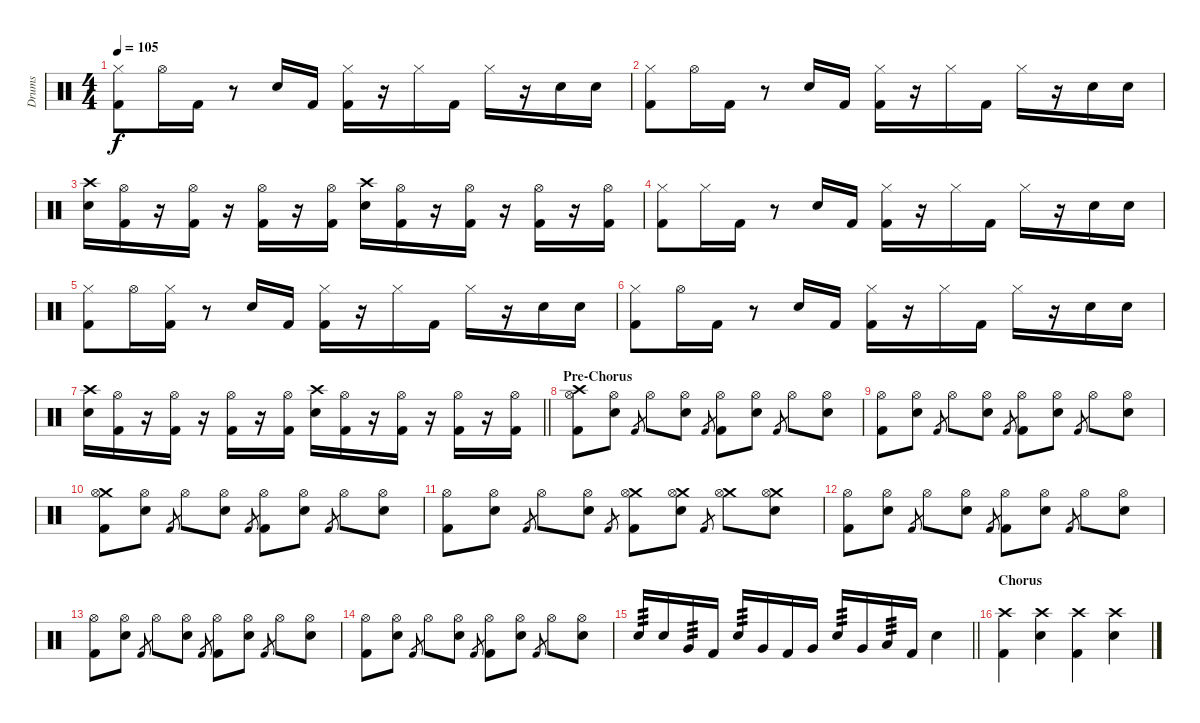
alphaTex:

\track ("Drums" "Drums") {instrument percussion}
\staff {score}
\articulation defaults
\ts (4 4)
\tempo 105
\clef neutral
\ks c
("Hi-Hat (closed)" "Kick (hit) 2").8{dy f} "Hi-Hat (open)".16 "Kick (hit) 2".16 r.8 "Electric Snare (hit)".16 "Kick (hit) 2".16 ("Hi-Hat (closed)" "Kick (hit) 2").16 r.16 "Hi-Hat (closed)".16 "Kick (hit) 2".16 "Hi-Hat (closed)".16 r.16 "Electric Snare (hit)".16 "Electric Snare (hit)".16 |
("Hi-Hat (closed)" "Kick (hit) 2").8 "Hi-Hat (open)".16 "Kick (hit) 2".16 r.8 "Electric Snare (hit)".16 "Kick (hit) 2".16 ("Hi-Hat (closed)" "Kick (hit) 2").16 r.16 "Hi-Hat (closed)".16 "Kick (hit) 2".16 "Hi-Hat (closed)".16 r.16 "Electric Snare (hit)".16 "Electric Snare (hit)".16 |
("Crash high (hit)" "Electric Snare (hit)").16 ("Hi-Hat (open)" "Kick (hit) 2").16 r.16 ("Kick (hit) 2" "Hi-Hat (open)").16 r.16 ("Kick (hit) 2" "Hi-Hat (open)").16 r.16 ("Hi-Hat (open)" "Kick (hit) 2").16 ("Crash high (hit)" "Electric Snare (hit)").16 ("Hi-Hat (open)" "Kick (hit) 2").16 r.16 ("Kick (hit) 2" "Hi-Hat (open)").16 r.16 ("Kick (hit) 2" "Hi-Hat (open)").16 r.16 ("Hi-Hat (open)" "Kick (hit) 2").16 |
("Hi-Hat (closed)" "Kick (hit) 2").8 "Hi-Hat (closed)".16 "Kick (hit) 2".16 r.8 "Electric Snare (hit)".16 "Kick (hit) 2".16 ("Hi-Hat (closed)" "Kick (hit) 2").16 r.16 "Hi-Hat (closed)".16 "Kick (hit) 2".16 "Hi-Hat (closed)".16 r.16 "Electric Snare (hit)".16 "Electric Snare (hit)".16 |
("Hi-Hat (closed)" "Kick (hit) 2").8 "Hi-Hat (open)".16 ("Hi-Hat (closed)" "Kick (hit) 2").16 r.8 "Electric Snare (hit)".16 "Kick (hit) 2".16 ("Hi-Hat (closed)" "Kick (hit) 2").16 r.16 "Hi-Hat (closed)".16 "Kick (hit) 2".16 "Hi-Hat (closed)".16 r.16 "Electric Snare (hit)".16 "Electric Snare (hit)".16 |
("Hi-Hat (closed)" "Kick (hit) 2").8 "Hi-Hat (open)".16 "Kick (hit) 2".16 r.8 "Electric Snare (hit)".16 "Kick (hit) 2".16 ("Hi-Hat (closed)" "Kick (hit) 2").16 r.16 "Hi-Hat (closed)".16 "Kick (hit) 2".16 "Hi-Hat (closed)".16 r.16 "Electric Snare (hit)".16 "Electric Snare (hit)".16 |
\barLineRight lightlight
("Crash high (hit)" "Electric Snare (hit)").16 ("Hi-Hat (open)" "Kick (hit) 2").16 r.16 ("Kick (hit) 2" "Hi-Hat (open)").16 r.16 ("Kick (hit) 2" "Hi-Hat (open)").16 r.16 ("Hi-Hat (open)" "Kick (hit) 2").16 ("Crash high (hit)" "Electric Snare (hit)").16 ("Hi-Hat (open)" "Kick (hit) 2").16 r.16 ("Kick (hit) 2" "Hi-Hat (open)").16 r.16 ("Kick (hit) 2" "Hi-Hat (open)").16 r.16 ("Hi-Hat (open)" "Kick (hit) 2").16 |
\section ("" "Pre-Chorus")
("Crash high (hit)" "Kick (hit) 2" "Hi-Hat (open)").8 ("Electric Snare (hit)" "Hi-Hat (open)").8 "Kick (hit) 2".8{gr} "Hi-Hat (open)".8 ("Electric Snare (hit)" "Hi-Hat (open)").8 "Kick (hit) 2".8{gr} ("Kick (hit) 2" "Hi-Hat (open)").8 ("Electric Snare (hit)" "Hi-Hat (open)").8 "Kick (hit) 2".8{gr} "Hi-Hat (open)".8 ("Electric Snare (hit)" "Hi-Hat (open)").8 |
("Kick (hit) 2" "Hi-Hat (open)").8 ("Electric Snare (hit)" "Hi-Hat (open)").8 "Kick (hit) 2".8{gr} "Hi-Hat (open)".8 ("Electric Snare (hit)" "Hi-Hat (open)").8 "Kick (hit) 2".8{gr} ("Kick (hit) 2" "Hi-Hat (open)").8 ("Electric Snare (hit)" "Hi-Hat (open)").8 "Kick (hit) 2".8{gr} "Hi-Hat (open)".8 ("Electric Snare (hit)" "Hi-Hat (open)").8 |
("Crash medium (hit)" "Kick (hit) 2" "Hi-Hat (open)").8 ("Electric Snare (hit)" "Hi-Hat (open)").8 "Kick (hit) 2".8{gr} "Hi-Hat (open)".8 ("Electric Snare (hit)" "Hi-Hat (open)").8 "Kick (hit) 2".8{gr} ("Kick (hit) 2" "Hi-Hat (open)").8 ("Electric Snare (hit)" "Hi-Hat (open)").8 "Kick (hit) 2".8{gr} "Hi-Hat (open)".8 ("Electric Snare (hit)" "Hi-Hat (open)").8 |
("Kick (hit) 2" "Hi-Hat (open)").8 ("Electric Snare (hit)" "Hi-Hat (open)").8 "Kick (hit) 2".8{gr} "Hi-Hat (open)".8 ("Electric Snare (hit)" "Hi-Hat (open)").8 "Kick (hit) 2".8{gr} ("Crash medium (hit)" "Kick (hit) 2" "Hi-Hat (open)").8 ("Crash medium (hit)" "Electric Snare (hit)" "Hi-Hat (open)").8 "Kick (hit) 2".8{gr} ("Crash medium (hit)" "Hi-Hat (open)").8 ("Crash medium (hit)" "Electric Snare (hit)" "Hi-Hat (open)").8 |
("Kick (hit) 2" "Hi-Hat (open)").8 ("Electric Snare (hit)" "Hi-Hat (open)").8 "Kick (hit) 2".8{gr} "Hi-Hat (open)".8 ("Electric Snare (hit)" "Hi-Hat (open)").8 "Kick (hit) 2".8{gr} ("Kick (hit) 2" "Hi-Hat (open)").8 ("Electric Snare (hit)" "Hi-Hat (open)").8 "Kick (hit) 2".8{gr} "Hi-Hat (open)".8 ("Electric Snare (hit)" "Hi-Hat (open)").8 |
("Kick (hit) 2" "Hi-Hat (open)").8 ("Electric Snare (hit)" "Hi-Hat (open)").8 "Kick (hit) 2".8{gr} "Hi-Hat (open)".8 ("Electric Snare (hit)" "Hi-Hat (open)").8 "Kick (hit) 2".8{gr} ("Kick (hit) 2" "Hi-Hat (open)").8 ("Electric Snare (hit)" "Hi-Hat (open)").8 "Kick (hit) 2".8{gr} "Hi-Hat (open)".8 ("Electric Snare (hit)" "Hi-Hat (open)").8 |
("Kick (hit) 2" "Hi-Hat (open)").8 ("Electric Snare (hit)" "Hi-Hat (open)").8 "Kick (hit) 2".8{gr} "Hi-Hat (open)".8 ("Electric Snare (hit)" "Hi-Hat (open)").8 "Kick (hit) 2".8{gr} ("Kick (hit) 2" "Hi-Hat (open)").8 ("Electric Snare (hit)" "Hi-Hat (open)").8 "Kick (hit) 2".8{gr} "Hi-Hat (open)".8 ("Electric Snare (hit)" "Hi-Hat (open)").8 |
\barLineRight lightlight "Electric Snare (hit)".16{tp 3} "Electric Snare (hit)".16 "Very Low Tom (hit)".16{tp 3} "Kick (hit) 2".16 "Electric Snare (hit)".16{tp 3} "Very Low Tom (hit)".16 "Kick (hit) 2".16 "Very Low Tom (hit)".16 "Electric Snare (hit)".16{tp 3} "Very Low Tom (hit)".16 "Low Floor Tom (hit)".16{tp 3} "Kick (hit) 2".16 "Electric Snare (hit)".4
|
\section ("" "Chorus")
("Crash high (hit)" "Kick (hit) 2").4 ("Crash high (hit)" "Electric Snare (hit)").4 ("Crash high (hit)" "Kick (hit) 2").4 ("Crash high (hit)" "Electric Snare (hit)").4
